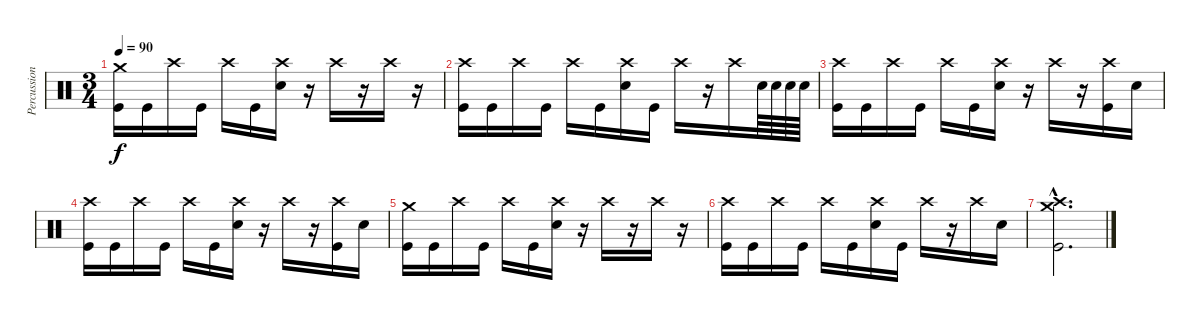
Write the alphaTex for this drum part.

\track ("Percussion" "Percussion") {instrument percussion}
\staff {score}
\articulation defaults
\ts (3 4)
\tempo 90
\clef neutral
\ks c
("Kick (hit)" "Crash medium (hit)").16{dy f} "Kick (hit)".16 "Crash high (hit)".16 "Kick (hit)".16 "Crash high (hit)".16 "Kick (hit)".16 ("Electric Snare (hit)" "Crash high (hit)").16 r.16 "Crash high (hit)".16 r.16 "Crash high (hit)".16 r.16 |
("Kick (hit)" "Crash high (hit)").16 "Kick (hit)".16 "Crash high (hit)".16 "Kick (hit)".16 "Crash high (hit)".16 "Kick (hit)".16 ("Electric Snare (hit)" "Crash high (hit)").16 "Kick (hit)".16 "Crash high (hit)".16 r.16 "Crash high (hit)".16 "Electric Snare (hit)".64 "Electric Snare (hit)".64 "Electric Snare (hit)".64 "Electric Snare (hit)".64 |
("Kick (hit)" "Crash high (hit)").16 "Kick (hit)".16 "Crash high (hit)".16 "Kick (hit)".16 "Crash high (hit)".16 "Kick (hit)".16 ("Electric Snare (hit)" "Crash high (hit)").16 r.16 "Crash high (hit)".16 r.16 ("Kick (hit)" "Crash high (hit)").16 "Electric Snare (hit)".16 |
("Kick (hit)" "Crash high (hit)").16 "Kick (hit)".16 "Crash high (hit)".16 "Kick (hit)".16 "Crash high (hit)".16 "Kick (hit)".16 ("Electric Snare (hit)" "Crash high (hit)").16 r.16 "Crash high (hit)".16 r.16 ("Kick (hit)" "Crash high (hit)").16 "Electric Snare (hit)".16 |
("Kick (hit)" "Crash medium (hit)").16 "Kick (hit)".16 "Crash high (hit)".16 "Kick (hit)".16 "Crash high (hit)".16 "Kick (hit)".16 ("Electric Snare (hit)" "Crash high (hit)").16 r.16 "Crash high (hit)".16 r.16 "Crash high (hit)".16 r.16 |
("Kick (hit)" "Crash high (hit)").16 "Kick (hit)".16 "Crash high (hit)".16 "Kick (hit)".16 "Crash high (hit)".16 "Kick (hit)".16 ("Electric Snare (hit)" "Crash high (hit)").16 "Kick (hit)".16 "Crash high (hit)".16 r.16 "Crash high (hit)".16 "Electric Snare (hit)".16 |
("Kick (hit)"{hac} "Crash high (hit)"{hac} "Crash medium (hit)"{hac}).2{d}
